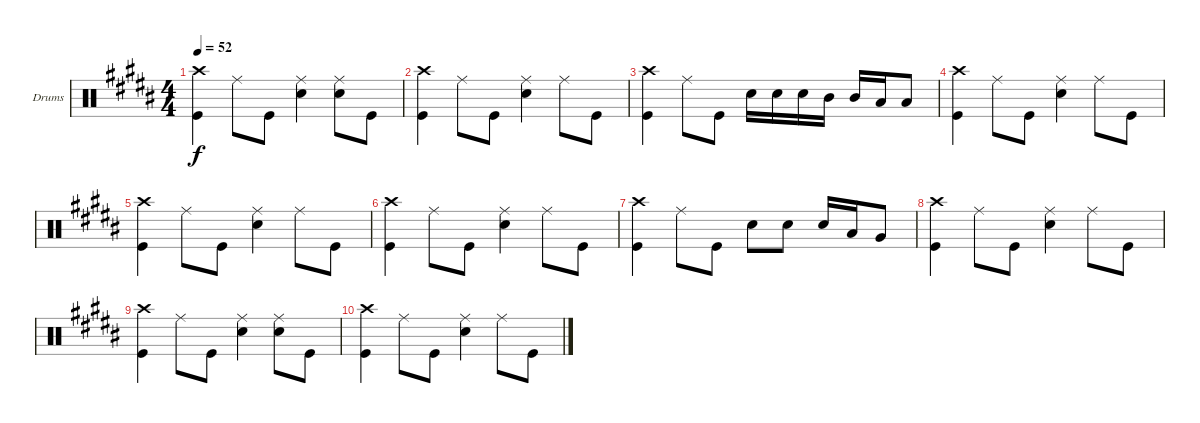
\bracketExtendMode groupsimilarinstruments
\firstSystemTrackNameOrientation horizontal
\otherSystemsTrackNameOrientation horizontal
\track ("Drumkit" "Drums") {solo instrument percussion}
\staff {score}
\articulation defaults
\ts (4 4)
\tempo 52
\clef neutral
\ks g#minor
("Crash high (hit)" "Kick (hit)").4{dy f} "Ride (middle)".8 "Kick (hit)".8 ("Ride (middle)" "Snare (hit) 2").4 ("Ride (middle)" "Snare (hit) 2").8 "Kick (hit)".8 |
("Crash high (hit)" "Kick (hit)").4 "Ride (middle)".8 "Kick (hit)".8 ("Ride (middle)" "Snare (hit) 2").4 "Ride (middle)".8 "Kick (hit)".8 |
("Crash high (hit)" "Kick (hit)").4 "Ride (middle)".8 "Kick (hit)".8 "Snare (hit) 2".16 "Snare (hit) 2".16 "Snare (hit) 2".16 "Mid Tom (hit)".16 "Mid Tom (hit)".16 "Low Tom (hit)".16 "Low Tom (hit)".8 |
("Crash high (hit)" "Kick (hit)").4 "Ride (middle)".8 "Kick (hit)".8 ("Ride (middle)" "Snare (hit) 2").4 "Ride (middle)".8 "Kick (hit)".8 |
("Crash high (hit)" "Kick (hit)").4 "Ride (middle)".8 "Kick (hit)".8 ("Ride (middle)" "Snare (hit) 2").4 "Ride (middle)".8 "Kick (hit)".8 |
("Crash high (hit)" "Kick (hit)").4 "Ride (middle)".8 "Kick (hit)".8 ("Ride (middle)" "Snare (hit) 2").4 "Ride (middle)".8 "Kick (hit)".8 |
("Crash high (hit)" "Kick (hit)").4 "Ride (middle)".8 "Kick (hit)".8 "Snare (hit) 2".8 "Snare (hit) 2".8 "Snare (hit) 2".16 "Low Tom (hit)".16 "Very Low Tom (hit)".8 |
("Crash high (hit)" "Kick (hit)").4 "Ride (middle)".8 "Kick (hit)".8 ("Ride (middle)" "Snare (hit) 2").4 "Ride (middle)".8 "Kick (hit)".8 |
("Crash high (hit)" "Kick (hit)").4 "Ride (middle)".8 "Kick (hit)".8 ("Ride (middle)" "Snare (hit) 2").4 ("Ride (middle)" "Snare (hit) 2").8 "Kick (hit)".8 |
("Crash high (hit)" "Kick (hit)").4 "Ride (middle)".8 "Kick (hit)".8 ("Ride (middle)" "Snare (hit) 2").4 "Ride (middle)".8 "Kick (hit)".8
